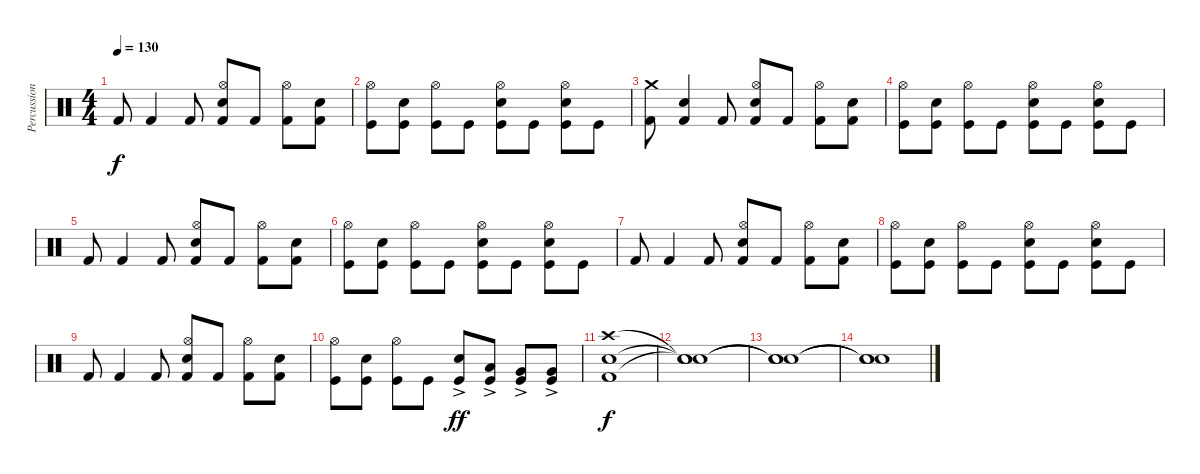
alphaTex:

\track ("Percussion" "Percussion") {instrument percussion}
\staff {score}
\articulation defaults
\ts (4 4)
\tempo 130
\clef neutral
\ks c "Kick (hit) 2".8{dy f} "Kick (hit) 2".4 "Kick (hit) 2".8
("Hi-Hat (open)" "Snare (hit) 2" "Kick (hit) 2").8 "Kick (hit) 2".8 ("Hi-Hat (open)" "Kick (hit) 2").8 ("Snare (hit) 2" "Kick (hit) 2").8 |
("Hi-Hat (open)" "Kick (hit)").8 ("Snare (hit) 2" "Kick (hit)").8 ("Hi-Hat (open)" "Kick (hit)").8 "Kick (hit)".8 ("Hi-Hat (open)" "Snare (hit) 2" "Kick (hit)").8 "Kick (hit)".8 ("Hi-Hat (open)" "Snare (hit) 2" "Kick (hit)").8 "Kick (hit)".8 |
("Crash medium (hit)" "Kick (hit) 2").8 ("Snare (hit) 2" "Kick (hit) 2").4 "Kick (hit) 2".8 ("Hi-Hat (open)" "Snare (hit) 2" "Kick (hit) 2").8 "Kick (hit) 2".8 ("Hi-Hat (open)" "Kick (hit) 2").8 ("Snare (hit) 2" "Kick (hit) 2").8 |
("Hi-Hat (open)" "Kick (hit)").8 ("Snare (hit) 2" "Kick (hit)").8 ("Hi-Hat (open)" "Kick (hit)").8 "Kick (hit)".8 ("Hi-Hat (open)" "Snare (hit) 2" "Kick (hit)").8 "Kick (hit)".8 ("Hi-Hat (open)" "Snare (hit) 2" "Kick (hit)").8 "Kick (hit)".8 |
"Kick (hit) 2".8 "Kick (hit) 2".4 "Kick (hit) 2".8 ("Hi-Hat (open)" "Snare (hit) 2" "Kick (hit) 2").8 "Kick (hit) 2".8 ("Hi-Hat (open)" "Kick (hit) 2").8 ("Snare (hit) 2" "Kick (hit) 2").8 |
("Hi-Hat (open)" "Kick (hit)").8 ("Snare (hit) 2" "Kick (hit)").8 ("Hi-Hat (open)" "Kick (hit)").8 "Kick (hit)".8 ("Hi-Hat (open)" "Snare (hit) 2" "Kick (hit)").8 "Kick (hit)".8 ("Hi-Hat (open)" "Snare (hit) 2" "Kick (hit)").8 "Kick (hit)".8 |
"Kick (hit) 2".8 "Kick (hit) 2".4 "Kick (hit) 2".8 ("Hi-Hat (open)" "Snare (hit) 2" "Kick (hit) 2").8 "Kick (hit) 2".8 ("Hi-Hat (open)" "Kick (hit) 2").8 ("Snare (hit) 2" "Kick (hit) 2").8 |
("Hi-Hat (open)" "Kick (hit)").8 ("Snare (hit) 2" "Kick (hit)").8 ("Hi-Hat (open)" "Kick (hit)").8 "Kick (hit)".8 ("Hi-Hat (open)" "Snare (hit) 2" "Kick (hit)").8 "Kick (hit)".8 ("Hi-Hat (open)" "Snare (hit) 2" "Kick (hit)").8 "Kick (hit)".8 |
"Kick (hit) 2".8 "Kick (hit) 2".4 "Kick (hit) 2".8 ("Hi-Hat (open)" "Snare (hit) 2" "Kick (hit) 2").8 "Kick (hit) 2".8 ("Hi-Hat (open)" "Kick (hit) 2").8 ("Snare (hit) 2" "Kick (hit) 2").8 |
("Hi-Hat (open)" "Kick (hit)").8 ("Snare (hit) 2" "Kick (hit)").8 ("Hi-Hat (open)" "Kick (hit)").8 "Kick (hit)".8 ("Snare (hit) 2"{ac} "Kick (hit)").8{dy ff} ("Low Floor Tom (hit)"{ac} "Kick (hit)").8 ("Very Low Tom (hit)"{ac} "Kick (hit)").8 ("Very Low Tom (hit)"{ac} "Kick (hit)").8 |
("Crash high (hit)" "Snare (hit) 2" "Kick (hit) 2").1{dy f} |
("Snare (hit)"{t} "Snare (hit)"{t} "Snare (hit)"{t}).1 |
("Snare (hit)"{t} "Snare (hit)"{t} "Snare (hit)"{t}).1 |
("Snare (hit)"{t} "Snare (hit)"{t} "Snare (hit)"{t}).1
